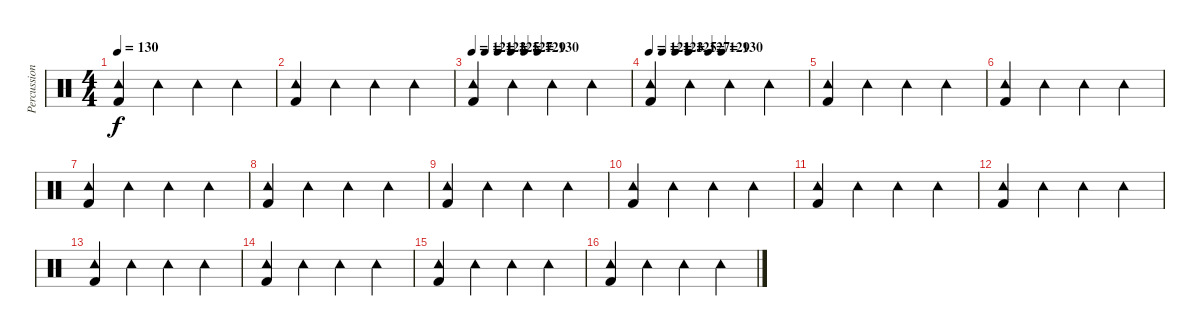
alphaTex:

\track ("Percussioni" "Percussion") {instrument percussion}
\staff {score}
\articulation defaults
\ts (4 4)
\tempo 130
\clef neutral
\ks c
("Tambourine (hit)" "Kick (hit) 2").4{dy f} "Tambourine (hit)".4 "Tambourine (hit)".4 "Tambourine (hit)".4 |
("Tambourine (hit)" "Kick (hit) 2").4 "Tambourine (hit)".4 "Tambourine (hit)".4 "Tambourine (hit)".4 |
\tempo 121
\tempo (123 0.08333333333333333)
\tempo (125 0.16666666666666666)
\tempo (127 0.25)
\tempo (129 0.3333333333333333)
\tempo (130 0.4166666666666667)
("Tambourine (hit)" "Kick (hit) 2").4 "Tambourine (hit)".4 "Tambourine (hit)".4 "Tambourine (hit)".4 |
\tempo 121
\tempo (123 0.08333333333333333)
\tempo (125 0.16666666666666666)
\tempo (127 0.25)
\tempo (129 0.375)
\tempo (130 0.4583333333333333)
("Tambourine (hit)" "Kick (hit) 2").4 "Tambourine (hit)".4 "Tambourine (hit)".4 "Tambourine (hit)".4 |
("Tambourine (hit)" "Kick (hit) 2").4 "Tambourine (hit)".4 "Tambourine (hit)".4 "Tambourine (hit)".4 |
("Tambourine (hit)" "Kick (hit) 2").4 "Tambourine (hit)".4 "Tambourine (hit)".4 "Tambourine (hit)".4 |
("Tambourine (hit)" "Kick (hit) 2").4 "Tambourine (hit)".4 "Tambourine (hit)".4 "Tambourine (hit)".4 |
("Tambourine (hit)" "Kick (hit) 2").4 "Tambourine (hit)".4 "Tambourine (hit)".4 "Tambourine (hit)".4 |
("Tambourine (hit)" "Kick (hit) 2").4 "Tambourine (hit)".4 "Tambourine (hit)".4 "Tambourine (hit)".4 |
("Tambourine (hit)" "Kick (hit) 2").4 "Tambourine (hit)".4 "Tambourine (hit)".4 "Tambourine (hit)".4 |
("Tambourine (hit)" "Kick (hit) 2").4 "Tambourine (hit)".4 "Tambourine (hit)".4 "Tambourine (hit)".4 |
("Tambourine (hit)" "Kick (hit) 2").4 "Tambourine (hit)".4 "Tambourine (hit)".4 "Tambourine (hit)".4 |
("Tambourine (hit)" "Kick (hit) 2").4 "Tambourine (hit)".4 "Tambourine (hit)".4 "Tambourine (hit)".4 |
("Tambourine (hit)" "Kick (hit) 2").4 "Tambourine (hit)".4 "Tambourine (hit)".4 "Tambourine (hit)".4 |
("Tambourine (hit)" "Kick (hit) 2").4 "Tambourine (hit)".4 "Tambourine (hit)".4 "Tambourine (hit)".4 |
("Tambourine (hit)" "Kick (hit) 2").4 "Tambourine (hit)".4 "Tambourine (hit)".4 "Tambourine (hit)".4
